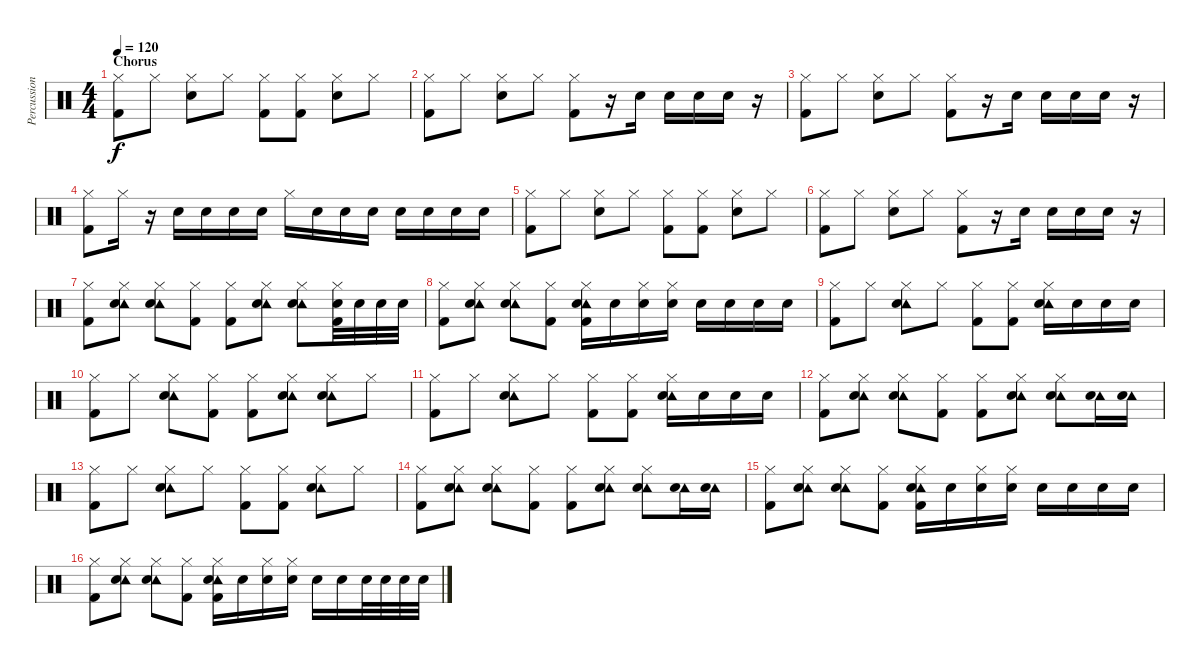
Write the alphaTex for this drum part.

\track ("Percussion" "Percussion") {instrument percussion}
\staff {score}
\articulation defaults
\ts (4 4)
\section ("" "Chorus")
\tempo 120
\clef neutral
\ks c
("Hi-Hat (closed)" "Kick (hit) 2").8{dy f} "Hi-Hat (closed)".8 ("Hi-Hat (closed)" "Snare (hit) 2").8 "Hi-Hat (closed)".8 ("Hi-Hat (closed)" "Kick (hit) 2").8 ("Hi-Hat (closed)" "Kick (hit) 2").8 ("Hi-Hat (closed)" "Snare (hit) 2").8 "Hi-Hat (closed)".8 |
("Hi-Hat (closed)" "Kick (hit) 2").8 "Hi-Hat (closed)".8 ("Hi-Hat (closed)" "Snare (hit) 2").8 "Hi-Hat (closed)".8 ("Hi-Hat (closed)" "Kick (hit) 2").8 r.16 "Snare (hit) 2".16 "Snare (hit) 2".16 "Snare (hit) 2".16 "Snare (hit) 2".16 r.16 |
("Hi-Hat (closed)" "Kick (hit) 2").8 "Hi-Hat (closed)".8 ("Hi-Hat (closed)" "Snare (hit) 2").8 "Hi-Hat (closed)".8 ("Hi-Hat (closed)" "Kick (hit) 2").8 r.16 "Snare (hit) 2".16 "Snare (hit) 2".16 "Snare (hit) 2".16 "Snare (hit) 2".16 r.16 |
("Hi-Hat (closed)" "Kick (hit) 2").8 "Hi-Hat (closed)".16 r.16 "Snare (hit) 2".16 "Snare (hit) 2".16 "Snare (hit) 2".16 "Snare (hit) 2".16 "Hi-Hat (closed)".16 "Snare (hit) 2".16 "Snare (hit) 2".16 "Snare (hit) 2".16 "Snare (hit) 2".16 "Snare (hit) 2".16 "Snare (hit) 2".16 "Snare (hit) 2".16 |
("Hi-Hat (closed)" "Kick (hit) 2").8 "Hi-Hat (closed)".8 ("Hi-Hat (closed)" "Snare (hit) 2").8 "Hi-Hat (closed)".8 ("Hi-Hat (closed)" "Kick (hit) 2").8 ("Hi-Hat (closed)" "Kick (hit) 2").8 ("Hi-Hat (closed)" "Snare (hit) 2").8 "Hi-Hat (closed)".8 |
("Hi-Hat (closed)" "Kick (hit) 2").8 "Hi-Hat (closed)".8 ("Hi-Hat (closed)" "Snare (hit) 2").8 "Hi-Hat (closed)".8 ("Hi-Hat (closed)" "Kick (hit) 2").8 r.16 "Snare (hit) 2".16 "Snare (hit) 2".16 "Snare (hit) 2".16 "Snare (hit) 2".16 r.16 |
("Hi-Hat (closed)" "Kick (hit) 2").8 ("Hi-Hat (closed)" "Tambourine (hit)" "Snare (hit) 2").8 ("Hi-Hat (closed)" "Tambourine (hit)" "Snare (hit) 2").8 ("Hi-Hat (closed)" "Kick (hit) 2").8 ("Hi-Hat (closed)" "Kick (hit) 2").8 ("Hi-Hat (closed)" "Tambourine (hit)" "Snare (hit) 2").8 ("Hi-Hat (closed)" "Tambourine (hit)" "Snare (hit) 2").8 ("Hi-Hat (closed)" "Snare (hit) 2" "Kick (hit) 2").32 "Snare (hit) 2".32 "Snare (hit) 2".32 "Snare (hit) 2".32 |
("Hi-Hat (closed)" "Kick (hit) 2").8 ("Hi-Hat (closed)" "Tambourine (hit)" "Snare (hit) 2").8 ("Hi-Hat (closed)" "Tambourine (hit)" "Snare (hit) 2").8 ("Hi-Hat (closed)" "Kick (hit) 2").8 ("Hi-Hat (closed)" "Tambourine (hit)" "Snare (hit) 2" "Kick (hit) 2").16 "Snare (hit) 2".16 ("Hi-Hat (closed)" "Snare (hit) 2").16 ("Hi-Hat (closed)" "Snare (hit) 2").16 "Snare (hit) 2".16 "Snare (hit) 2".16 "Snare (hit) 2".16 "Snare (hit) 2".16 |
("Hi-Hat (closed)" "Kick (hit) 2").8 "Hi-Hat (closed)".8 ("Hi-Hat (closed)" "Tambourine (hit)" "Snare (hit) 2").8 "Hi-Hat (closed)".8 ("Hi-Hat (closed)" "Kick (hit) 2").8 ("Hi-Hat (closed)" "Kick (hit) 2").8 ("Hi-Hat (closed)" "Tambourine (hit)" "Snare (hit) 2").16 "Snare (hit) 2".16 "Snare (hit) 2".16 "Snare (hit) 2".16 |
("Hi-Hat (closed)" "Kick (hit) 2").8 "Hi-Hat (closed)".8 ("Hi-Hat (closed)" "Tambourine (hit)" "Snare (hit) 2").8 ("Hi-Hat (closed)" "Kick (hit) 2").8 ("Hi-Hat (closed)" "Kick (hit) 2").8 ("Hi-Hat (closed)" "Tambourine (hit)" "Snare (hit) 2").8 ("Hi-Hat (closed)" "Tambourine (hit)" "Snare (hit) 2").8 "Hi-Hat (closed)".8 |
("Hi-Hat (closed)" "Kick (hit) 2").8 "Hi-Hat (closed)".8 ("Hi-Hat (closed)" "Tambourine (hit)" "Snare (hit) 2").8 "Hi-Hat (closed)".8 ("Hi-Hat (closed)" "Kick (hit) 2").8 ("Hi-Hat (closed)" "Kick (hit) 2").8 ("Hi-Hat (closed)" "Tambourine (hit)" "Snare (hit) 2").16 "Snare (hit) 2".16 "Snare (hit) 2".16 "Snare (hit) 2".16 |
("Hi-Hat (closed)" "Kick (hit) 2").8 ("Hi-Hat (closed)" "Tambourine (hit)" "Snare (hit) 2").8 ("Hi-Hat (closed)" "Tambourine (hit)" "Snare (hit) 2").8 ("Hi-Hat (closed)" "Kick (hit) 2").8 ("Hi-Hat (closed)" "Kick (hit) 2").8 ("Hi-Hat (closed)" "Tambourine (hit)" "Snare (hit) 2").8 ("Hi-Hat (closed)" "Tambourine (hit)" "Snare (hit) 2").8 ("Tambourine (hit)" "Snare (hit) 2").16 ("Tambourine (hit)" "Snare (hit) 2").16 |
("Hi-Hat (closed)" "Kick (hit) 2").8 "Hi-Hat (closed)".8 ("Hi-Hat (closed)" "Tambourine (hit)" "Snare (hit) 2").8 "Hi-Hat (closed)".8 ("Hi-Hat (closed)" "Kick (hit) 2").8 ("Hi-Hat (closed)" "Kick (hit) 2").8 ("Hi-Hat (closed)" "Tambourine (hit)" "Snare (hit) 2").8 "Hi-Hat (closed)".8 |
("Hi-Hat (closed)" "Kick (hit) 2").8 ("Hi-Hat (closed)" "Tambourine (hit)" "Snare (hit) 2").8 ("Hi-Hat (closed)" "Tambourine (hit)" "Snare (hit) 2").8 ("Hi-Hat (closed)" "Kick (hit) 2").8 ("Hi-Hat (closed)" "Kick (hit) 2").8 ("Hi-Hat (closed)" "Tambourine (hit)" "Snare (hit) 2").8 ("Hi-Hat (closed)" "Tambourine (hit)" "Snare (hit) 2").8 ("Tambourine (hit)" "Snare (hit) 2").16 ("Tambourine (hit)" "Snare (hit) 2").16 |
("Hi-Hat (closed)" "Kick (hit) 2").8 ("Hi-Hat (closed)" "Tambourine (hit)" "Snare (hit) 2").8 ("Hi-Hat (closed)" "Tambourine (hit)" "Snare (hit) 2").8 ("Hi-Hat (closed)" "Kick (hit) 2").8 ("Hi-Hat (closed)" "Tambourine (hit)" "Snare (hit) 2" "Kick (hit) 2").16 "Snare (hit) 2".16 ("Hi-Hat (closed)" "Snare (hit) 2").16 ("Hi-Hat (closed)" "Snare (hit) 2").16 "Snare (hit) 2".16 "Snare (hit) 2".16 "Snare (hit) 2".16 "Snare (hit) 2".16 |
("Hi-Hat (closed)" "Kick (hit) 2").8 ("Hi-Hat (closed)" "Tambourine (hit)" "Snare (hit) 2").8 ("Hi-Hat (closed)" "Tambourine (hit)" "Snare (hit) 2").8 ("Hi-Hat (closed)" "Kick (hit) 2").8 ("Hi-Hat (closed)" "Tambourine (hit)" "Snare (hit) 2" "Kick (hit) 2").16 "Snare (hit) 2".16 ("Hi-Hat (closed)" "Snare (hit) 2").16 ("Hi-Hat (closed)" "Snare (hit) 2").16 "Snare (hit) 2".16 "Snare (hit) 2".16 "Snare (hit) 2".32 "Snare (hit) 2".32 "Snare (hit) 2".32 "Snare (hit) 2".32
